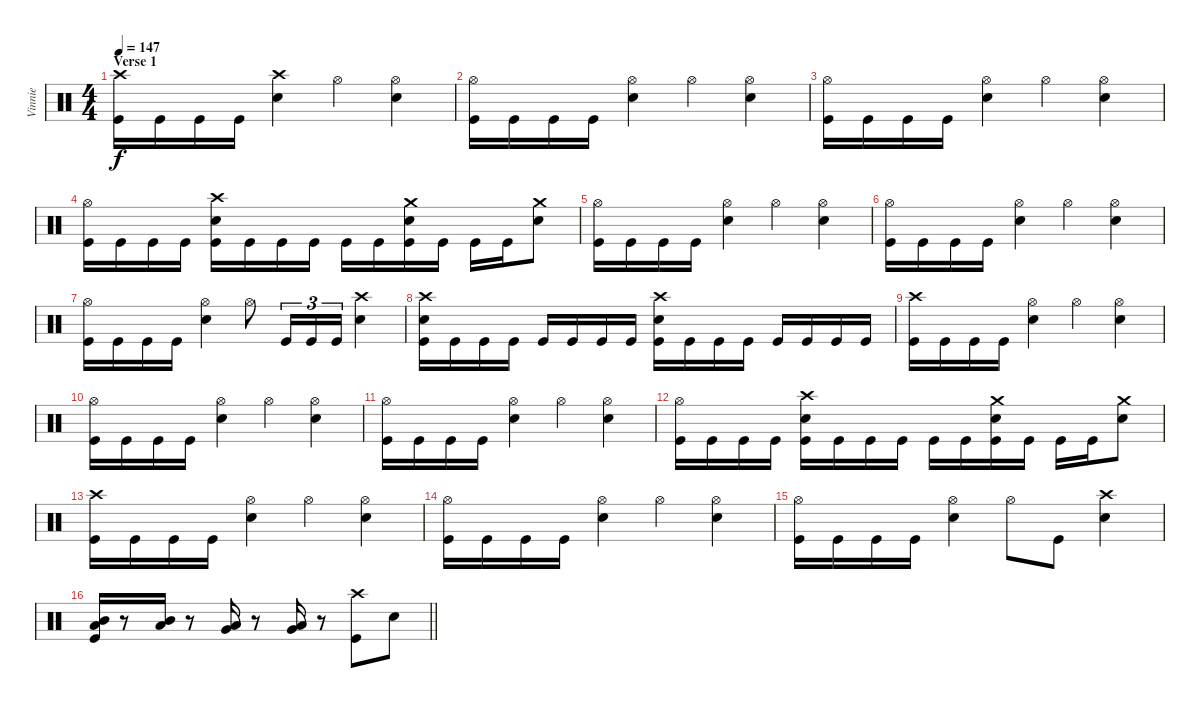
\track ("Vinnie" "Vinnie") {instrument percussion}
\staff {score}
\articulation defaults
\ts (4 4)
\section ("" "Verse 1")
\tempo 147
\clef neutral
\ks c
("Crash high (hit)" "Kick (hit)").16{dy f volume 16} "Kick (hit)".16 "Kick (hit)".16 "Kick (hit)".16 ("Crash high (hit)" "Electric Snare (hit)").4 "Hi-Hat (open)".4 ("Hi-Hat (open)" "Electric Snare (hit)").4 |
("Hi-Hat (open)" "Kick (hit)").16 "Kick (hit)".16 "Kick (hit)".16 "Kick (hit)".16 ("Hi-Hat (open)" "Electric Snare (hit)").4 "Hi-Hat (open)".4 ("Hi-Hat (open)" "Electric Snare (hit)").4 |
("Hi-Hat (open)" "Kick (hit)").16 "Kick (hit)".16 "Kick (hit)".16 "Kick (hit)".16 ("Hi-Hat (open)" "Electric Snare (hit)").4 "Hi-Hat (open)".4 ("Hi-Hat (open)" "Electric Snare (hit)").4 |
("Hi-Hat (open)" "Kick (hit)").16 "Kick (hit)".16 "Kick (hit)".16 "Kick (hit)".16 ("Crash high (hit)" "Electric Snare (hit)" "Kick (hit)").16 "Kick (hit)".16 "Kick (hit)".16 "Kick (hit)".16 "Kick (hit)".16 "Kick (hit)".16 ("Crash medium (hit)" "Electric Snare (hit)" "Kick (hit)").16 "Kick (hit)".16 "Kick (hit)".16 "Kick (hit)".16 ("Crash medium (hit)" "Electric Snare (hit)").8 |
("Hi-Hat (open)" "Kick (hit)").16 "Kick (hit)".16 "Kick (hit)".16 "Kick (hit)".16 ("Hi-Hat (open)" "Electric Snare (hit)").4 "Hi-Hat (open)".4 ("Hi-Hat (open)" "Electric Snare (hit)").4 |
("Hi-Hat (open)" "Kick (hit)").16 "Kick (hit)".16 "Kick (hit)".16 "Kick (hit)".16 ("Hi-Hat (open)" "Electric Snare (hit)").4 "Hi-Hat (open)".4 ("Hi-Hat (open)" "Electric Snare (hit)").4 |
("Hi-Hat (open)" "Kick (hit)").16 "Kick (hit)".16 "Kick (hit)".16 "Kick (hit)".16 ("Hi-Hat (open)" "Electric Snare (hit)").4 "Hi-Hat (open)".8 "Kick (hit)".16{tu (3 2)} "Kick (hit)".16{tu (3 2)} "Kick (hit)".16{tu (3 2)} ("Crash high (hit)" "Electric Snare (hit)").4 |
("Crash high (hit)" "Electric Snare (hit)" "Kick (hit)").16 "Kick (hit)".16 "Kick (hit)".16 "Kick (hit)".16 "Kick (hit)".16 "Kick (hit)".16 "Kick (hit)".16 "Kick (hit)".16 ("Crash high (hit)" "Electric Snare (hit)" "Kick (hit)").16 "Kick (hit)".16 "Kick (hit)".16 "Kick (hit)".16 "Kick (hit)".16 "Kick (hit)".16 "Kick (hit)".16 "Kick (hit)".16 |
("Crash high (hit)" "Kick (hit)").16 "Kick (hit)".16 "Kick (hit)".16 "Kick (hit)".16 ("Hi-Hat (open)" "Electric Snare (hit)").4 "Hi-Hat (open)".4 ("Hi-Hat (open)" "Electric Snare (hit)").4 |
("Hi-Hat (open)" "Kick (hit)").16 "Kick (hit)".16 "Kick (hit)".16 "Kick (hit)".16 ("Hi-Hat (open)" "Electric Snare (hit)").4 "Hi-Hat (open)".4 ("Hi-Hat (open)" "Electric Snare (hit)").4 |
("Hi-Hat (open)" "Kick (hit)").16 "Kick (hit)".16 "Kick (hit)".16 "Kick (hit)".16 ("Hi-Hat (open)" "Electric Snare (hit)").4 "Hi-Hat (open)".4 ("Hi-Hat (open)" "Electric Snare (hit)").4 |
("Hi-Hat (open)" "Kick (hit)").16 "Kick (hit)".16 "Kick (hit)".16 "Kick (hit)".16 ("Crash high (hit)" "Electric Snare (hit)" "Kick (hit)").16 "Kick (hit)".16 "Kick (hit)".16 "Kick (hit)".16 "Kick (hit)".16 "Kick (hit)".16 ("Crash medium (hit)" "Electric Snare (hit)" "Kick (hit)").16 "Kick (hit)".16 "Kick (hit)".16 "Kick (hit)".16 ("Crash medium (hit)" "Electric Snare (hit)").8 |
("Crash high (hit)" "Kick (hit)").16 "Kick (hit)".16 "Kick (hit)".16 "Kick (hit)".16 ("Hi-Hat (open)" "Electric Snare (hit)").4 "Hi-Hat (open)".4 ("Hi-Hat (open)" "Electric Snare (hit)").4 |
("Hi-Hat (open)" "Kick (hit)").16 "Kick (hit)".16 "Kick (hit)".16 "Kick (hit)".16 ("Hi-Hat (open)" "Electric Snare (hit)").4 "Hi-Hat (open)".4 ("Hi-Hat (open)" "Electric Snare (hit)").4 |
("Hi-Hat (open)" "Kick (hit)").16 "Kick (hit)".16 "Kick (hit)".16 "Kick (hit)".16 ("Hi-Hat (open)" "Electric Snare (hit)").4 "Hi-Hat (open)".8 "Kick (hit)".8 ("Crash high (hit)" "Electric Snare (hit)").4 |
\barLineRight lightlight
("Mid Tom (hit)" "Low Tom (hit)" "Kick (hit)").16 r.8 ("Mid Tom (hit)" "Low Tom (hit)").16 r.8 ("Low Tom (hit)" "Very Low Tom (hit)").16 r.8 ("Low Tom (hit)" "Very Low Tom (hit)").16 r.8 ("Crash high (hit)" "Kick (hit)").8 "Electric Snare (hit)".8
